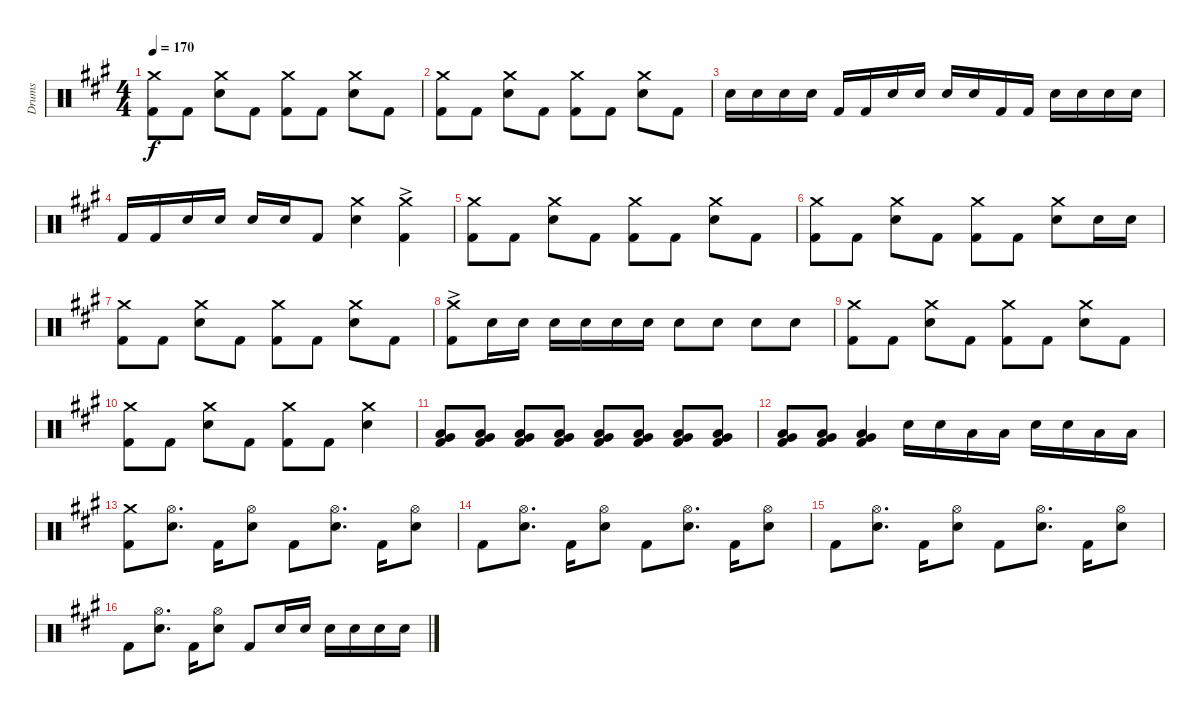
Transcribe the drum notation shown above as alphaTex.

\track ("Drums" "Drums") {instrument percussion}
\staff {score}
\articulation defaults
\ts (4 4)
\tempo 170
\clef neutral
\ks a
("Crash medium (hit)" "Kick (hit) 2").8{dy f} "Kick (hit) 2".8 ("Crash medium (hit)" "Electric Snare (hit)").8 "Kick (hit) 2".8 ("Crash medium (hit)" "Kick (hit) 2").8 "Kick (hit) 2".8 ("Crash medium (hit)" "Electric Snare (hit)").8 "Kick (hit) 2".8 |
("Crash medium (hit)" "Kick (hit) 2").8 "Kick (hit) 2".8 ("Crash medium (hit)" "Electric Snare (hit)").8 "Kick (hit) 2".8 ("Crash medium (hit)" "Kick (hit) 2").8 "Kick (hit) 2".8 ("Crash medium (hit)" "Electric Snare (hit)").8 "Kick (hit) 2".8 |
"Electric Snare (hit)".16 "Electric Snare (hit)".16 "Electric Snare (hit)".16 "Electric Snare (hit)".16 "Kick (hit) 2".16 "Kick (hit) 2".16 "Electric Snare (hit)".16 "Electric Snare (hit)".16 "Electric Snare (hit)".16 "Electric Snare (hit)".16 "Kick (hit) 2".16 "Kick (hit) 2".16 "Electric Snare (hit)".16 "Electric Snare (hit)".16 "Electric Snare (hit)".16 "Electric Snare (hit)".16 |
"Kick (hit) 2".16 "Kick (hit) 2".16 "Electric Snare (hit)".16 "Electric Snare (hit)".16 "Electric Snare (hit)".16 "Electric Snare (hit)".16 "Kick (hit) 2".8 ("Crash medium (hit)" "Electric Snare (hit)").4 ("Crash medium (hit)" "Kick (hit) 2"{ac}).4 |
("Crash medium (hit)" "Kick (hit) 2").8 "Kick (hit) 2".8 ("Crash medium (hit)" "Electric Snare (hit)").8 "Kick (hit) 2".8 ("Crash medium (hit)" "Kick (hit) 2").8 "Kick (hit) 2".8 ("Crash medium (hit)" "Electric Snare (hit)").8 "Kick (hit) 2".8 |
("Crash medium (hit)" "Kick (hit) 2").8 "Kick (hit) 2".8 ("Crash medium (hit)" "Electric Snare (hit)").8 "Kick (hit) 2".8 ("Crash medium (hit)" "Kick (hit) 2").8 "Kick (hit) 2".8 ("Crash medium (hit)" "Electric Snare (hit)").8 "Electric Snare (hit)".16 "Electric Snare (hit)".16 |
("Crash medium (hit)" "Kick (hit) 2").8 "Kick (hit) 2".8 ("Crash medium (hit)" "Electric Snare (hit)").8 "Kick (hit) 2".8 ("Crash medium (hit)" "Kick (hit) 2").8 "Kick (hit) 2".8 ("Crash medium (hit)" "Electric Snare (hit)").8 "Kick (hit) 2".8 |
("Crash medium (hit)" "Kick (hit) 2"{ac}).8 "Electric Snare (hit)".16 "Electric Snare (hit)".16 "Electric Snare (hit)".16 "Electric Snare (hit)".16 "Electric Snare (hit)".16 "Electric Snare (hit)".16 "Electric Snare (hit)".8 "Electric Snare (hit)".8 "Electric Snare (hit)".8 "Electric Snare (hit)".8 |
("Crash medium (hit)" "Kick (hit) 2").8 "Kick (hit) 2".8 ("Crash medium (hit)" "Electric Snare (hit)").8 "Kick (hit) 2".8 ("Crash medium (hit)" "Kick (hit) 2").8 "Kick (hit) 2".8 ("Crash medium (hit)" "Electric Snare (hit)").8 "Kick (hit) 2".8 |
("Crash medium (hit)" "Kick (hit) 2").8 "Kick (hit) 2".8 ("Crash medium (hit)" "Electric Snare (hit)").8 "Kick (hit) 2".8 ("Crash medium (hit)" "Kick (hit) 2").8 "Kick (hit) 2".8 ("Crash medium (hit)" "Electric Snare (hit)").4 |
("Low Floor Tom (hit)" "Very Low Tom (hit)" "Kick (hit) 2").8 ("Low Floor Tom (hit)" "Very Low Tom (hit)" "Kick (hit) 2").8 ("Low Floor Tom (hit)" "Very Low Tom (hit)" "Kick (hit) 2").8 ("Low Floor Tom (hit)" "Very Low Tom (hit)" "Kick (hit) 2").8 ("Low Floor Tom (hit)" "Very Low Tom (hit)" "Kick (hit) 2").8 ("Low Floor Tom (hit)" "Very Low Tom (hit)" "Kick (hit) 2").8 ("Low Floor Tom (hit)" "Very Low Tom (hit)" "Kick (hit) 2").8 ("Low Floor Tom (hit)" "Very Low Tom (hit)" "Kick (hit) 2").8 |
("Low Floor Tom (hit)" "Very Low Tom (hit)" "Kick (hit) 2").8 ("Low Floor Tom (hit)" "Very Low Tom (hit)" "Kick (hit) 2").8 ("Low Floor Tom (hit)" "Very Low Tom (hit)" "Kick (hit) 2").4 "Electric Snare (hit)".16 "Electric Snare (hit)".16 "Low Floor Tom (hit)".16 "Low Floor Tom (hit)".16 "Electric Snare (hit)".16 "Electric Snare (hit)".16 "Low Floor Tom (hit)".16 "Low Floor Tom (hit)".16 |
("Crash medium (hit)" "Kick (hit) 2").8 ("Hi-Hat (open)" "Electric Snare (hit)").8{d} "Kick (hit) 2".16 ("Hi-Hat (open)" "Electric Snare (hit)").8 "Kick (hit) 2".8 ("Hi-Hat (open)" "Electric Snare (hit)").8{d} "Kick (hit) 2".16 ("Hi-Hat (open)" "Electric Snare (hit)").8 |
"Kick (hit) 2".8 ("Hi-Hat (open)" "Electric Snare (hit)").8{d} "Kick (hit) 2".16 ("Hi-Hat (open)" "Electric Snare (hit)").8 "Kick (hit) 2".8 ("Hi-Hat (open)" "Electric Snare (hit)").8{d} "Kick (hit) 2".16 ("Hi-Hat (open)" "Electric Snare (hit)").8 |
"Kick (hit) 2".8 ("Hi-Hat (open)" "Electric Snare (hit)").8{d} "Kick (hit) 2".16 ("Hi-Hat (open)" "Electric Snare (hit)").8 "Kick (hit) 2".8 ("Hi-Hat (open)" "Electric Snare (hit)").8{d} "Kick (hit) 2".16 ("Hi-Hat (open)" "Electric Snare (hit)").8 |
"Kick (hit) 2".8 ("Hi-Hat (open)" "Electric Snare (hit)").8{d} "Kick (hit) 2".16 ("Hi-Hat (open)" "Electric Snare (hit)").8 "Kick (hit) 2".8 "Electric Snare (hit)".16 "Electric Snare (hit)".16 "Electric Snare (hit)".16 "Electric Snare (hit)".16 "Electric Snare (hit)".16 "Electric Snare (hit)".16
